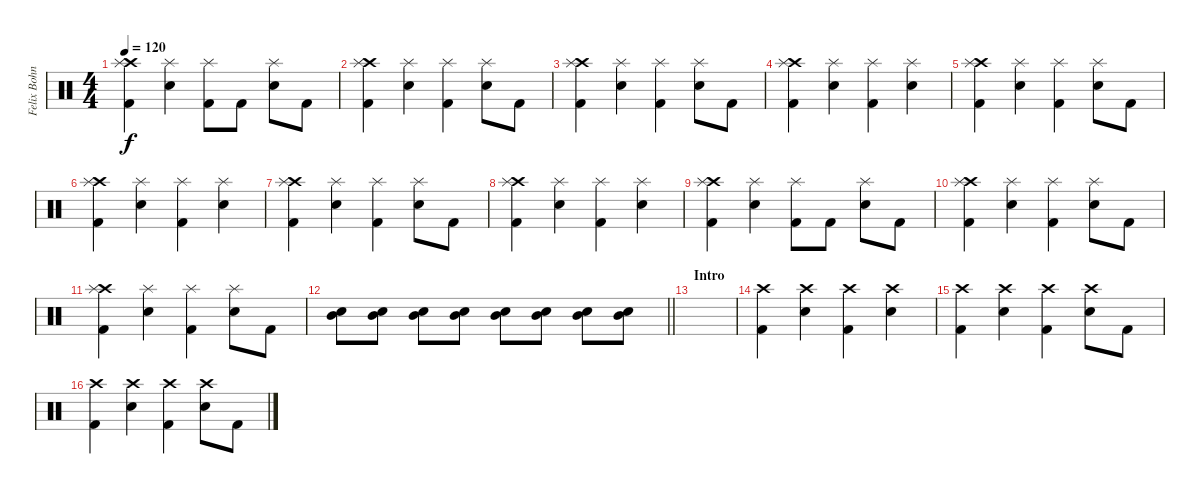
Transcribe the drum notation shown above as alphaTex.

\track ("Felix Bohnke (Drums)" "Felix Bohn") {instrument percussion}
\staff {score}
\articulation defaults
\ts (4 4)
\tempo 120
\clef neutral
\ks c
("Crash high (hit)" "Splash (hit)" "Kick (hit) 2").4{dy f} ("Splash (hit)" "Snare (hit) 2").4 ("Splash (hit)" "Kick (hit) 2").8 "Kick (hit) 2".8 ("Splash (hit)" "Snare (hit) 2").8 "Kick (hit) 2".8 |
("Crash high (hit)" "Splash (hit)" "Kick (hit) 2").4 ("Splash (hit)" "Snare (hit) 2").4 ("Splash (hit)" "Kick (hit) 2").4 ("Splash (hit)" "Snare (hit) 2").8 "Kick (hit) 2".8 |
("Crash high (hit)" "Splash (hit)" "Kick (hit) 2").4 ("Splash (hit)" "Snare (hit) 2").4 ("Splash (hit)" "Kick (hit) 2").4 ("Splash (hit)" "Snare (hit) 2").8 "Kick (hit) 2".8 |
("Crash high (hit)" "Splash (hit)" "Kick (hit) 2").4 ("Splash (hit)" "Snare (hit) 2").4 ("Splash (hit)" "Kick (hit) 2").4 ("Splash (hit)" "Snare (hit) 2").4 |
("Crash high (hit)" "Splash (hit)" "Kick (hit) 2").4 ("Splash (hit)" "Snare (hit) 2").4 ("Splash (hit)" "Kick (hit) 2").4 ("Splash (hit)" "Snare (hit) 2").8 "Kick (hit) 2".8 |
("Crash high (hit)" "Splash (hit)" "Kick (hit) 2").4 ("Splash (hit)" "Snare (hit) 2").4 ("Splash (hit)" "Kick (hit) 2").4 ("Splash (hit)" "Snare (hit) 2").4 |
("Crash high (hit)" "Splash (hit)" "Kick (hit) 2").4 ("Splash (hit)" "Snare (hit) 2").4 ("Splash (hit)" "Kick (hit) 2").4 ("Splash (hit)" "Snare (hit) 2").8 "Kick (hit) 2".8 |
("Crash high (hit)" "Splash (hit)" "Kick (hit) 2").4 ("Splash (hit)" "Snare (hit) 2").4 ("Splash (hit)" "Kick (hit) 2").4 ("Splash (hit)" "Snare (hit) 2").4 |
("Crash high (hit)" "Splash (hit)" "Kick (hit) 2").4 ("Splash (hit)" "Snare (hit) 2").4 ("Splash (hit)" "Kick (hit) 2").8 "Kick (hit) 2".8 ("Splash (hit)" "Snare (hit) 2").8 "Kick (hit) 2".8 |
("Crash high (hit)" "Splash (hit)" "Kick (hit) 2").4 ("Splash (hit)" "Snare (hit) 2").4 ("Splash (hit)" "Kick (hit) 2").4 ("Splash (hit)" "Snare (hit) 2").8 "Kick (hit) 2".8 |
("Crash high (hit)" "Splash (hit)" "Kick (hit) 2").4 ("Splash (hit)" "Snare (hit) 2").4 ("Splash (hit)" "Kick (hit) 2").4 ("Splash (hit)" "Snare (hit) 2").8 "Kick (hit) 2".8 |
\barLineRight lightlight
("Mid Tom (hit)" "Snare (hit) 2").8 ("Mid Tom (hit)" "Snare (hit) 2").8 ("Mid Tom (hit)" "Snare (hit) 2").8 ("Mid Tom (hit)" "Snare (hit) 2").8 ("Mid Tom (hit)" "Snare (hit) 2").8 ("Mid Tom (hit)" "Snare (hit) 2").8 ("Mid Tom (hit)" "Snare (hit) 2").8 ("Mid Tom (hit)" "Snare (hit) 2").8 |
\section ("" "Intro")
|
("Crash high (hit)" "Kick (hit) 2").4 ("Crash high (hit)" "Snare (hit) 2").4 ("Crash high (hit)" "Kick (hit) 2").4 ("Crash high (hit)" "Snare (hit) 2").4 |
("Crash high (hit)" "Kick (hit) 2").4 ("Crash high (hit)" "Snare (hit) 2").4 ("Crash high (hit)" "Kick (hit) 2").4 ("Crash high (hit)" "Snare (hit) 2").8 "Kick (hit) 2".8 |
("Crash high (hit)" "Kick (hit) 2").4 ("Crash high (hit)" "Snare (hit) 2").4 ("Crash high (hit)" "Kick (hit) 2").4 ("Crash high (hit)" "Snare (hit) 2").8 "Kick (hit) 2".8
